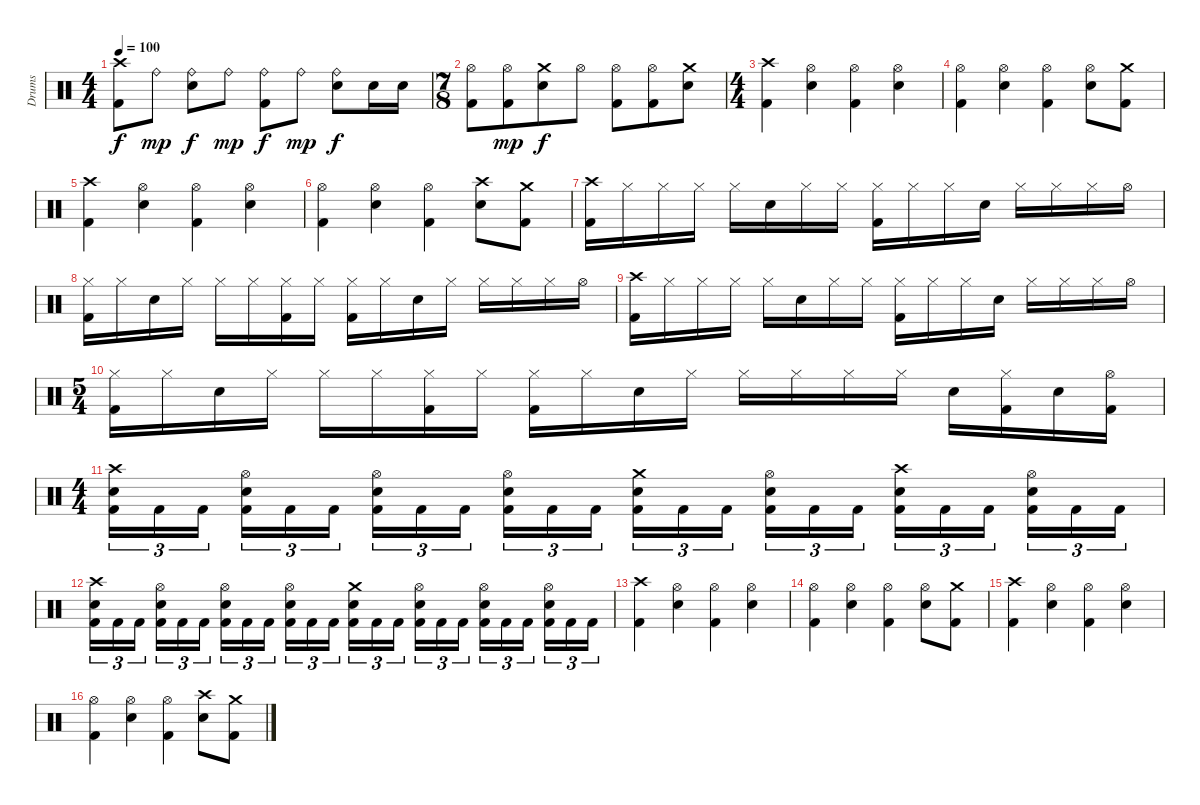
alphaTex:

\track ("Drums" "Drums") {instrument percussion}
\staff {score}
\articulation defaults
\ts (4 4)
\tempo 100
\clef neutral
\ks c
("Crash high (hit)" "Kick (hit) 2").8{dy f} "Ride (bell)".8{dy mp} ("Ride (bell)" "Snare (hit) 2").8{dy f} "Ride (bell)".8{dy mp} ("Ride (bell)" "Kick (hit) 2").8{dy f} "Ride (bell)".8{dy mp} ("Ride (bell)" "Snare (hit) 2").8{dy f} "Snare (hit) 2".16 "Snare (hit) 2".16 |
\ts (7 8)
("Hi-Hat (open)" "Kick (hit) 2").8 ("Hi-Hat (open)" "Kick (hit) 2").8{dy mp} ("Crash medium (hit)" "Snare (hit) 2").8{dy f} "Hi-Hat (open)".8 ("Hi-Hat (open)" "Kick (hit) 2").8 ("Hi-Hat (open)" "Kick (hit) 2").8 ("Crash medium (hit)" "Snare (hit) 2").8 |
\ts (4 4)
("Crash high (hit)" "Kick (hit) 2").4 ("Hi-Hat (open)" "Snare (hit) 2").4 ("Hi-Hat (open)" "Kick (hit) 2").4 ("Hi-Hat (open)" "Snare (hit) 2").4 |
("Hi-Hat (open)" "Kick (hit) 2").4 ("Hi-Hat (open)" "Snare (hit) 2").4 ("Hi-Hat (open)" "Kick (hit) 2").4 ("Hi-Hat (open)" "Snare (hit) 2").8 ("Crash medium (hit)" "Kick (hit) 2").8 |
("Crash high (hit)" "Kick (hit) 2").4 ("Hi-Hat (open)" "Snare (hit) 2").4 ("Hi-Hat (open)" "Kick (hit) 2").4 ("Hi-Hat (open)" "Snare (hit) 2").4 |
("Hi-Hat (open)" "Kick (hit) 2").4 ("Hi-Hat (open)" "Snare (hit) 2").4 ("Hi-Hat (open)" "Kick (hit) 2").4 ("Crash high (hit)" "Snare (hit) 2").8 ("Crash medium (hit)" "Kick (hit) 2").8 |
("Crash high (hit)" "Kick (hit) 2").16 "Hi-Hat (closed)".16 "Hi-Hat (closed)".16 "Hi-Hat (closed)".16 "Hi-Hat (closed)".16 "Snare (hit) 2".16 "Hi-Hat (closed)".16 "Hi-Hat (closed)".16 ("Hi-Hat (closed)" "Kick (hit) 2").16 "Hi-Hat (closed)".16 "Hi-Hat (closed)".16 "Snare (hit) 2".16 "Hi-Hat (closed)".16 "Hi-Hat (closed)".16 "Hi-Hat (closed)".16 "Hi-Hat (open)".16 |
("Hi-Hat (closed)" "Kick (hit) 2").16 "Hi-Hat (closed)".16 "Snare (hit) 2".16 "Hi-Hat (closed)".16 "Hi-Hat (closed)".16 "Hi-Hat (closed)".16 ("Hi-Hat (closed)" "Kick (hit) 2").16 "Hi-Hat (closed)".16 ("Hi-Hat (closed)" "Kick (hit) 2").16 "Hi-Hat (closed)".16 "Snare (hit) 2".16 "Hi-Hat (closed)".16 "Hi-Hat (closed)".16 "Hi-Hat (closed)".16 "Hi-Hat (closed)".16 "Hi-Hat (open)".16 |
("Crash high (hit)" "Kick (hit) 2").16 "Hi-Hat (closed)".16 "Hi-Hat (closed)".16 "Hi-Hat (closed)".16 "Hi-Hat (closed)".16 "Snare (hit) 2".16 "Hi-Hat (closed)".16 "Hi-Hat (closed)".16 ("Hi-Hat (closed)" "Kick (hit) 2").16 "Hi-Hat (closed)".16 "Hi-Hat (closed)".16 "Snare (hit) 2".16 "Hi-Hat (closed)".16 "Hi-Hat (closed)".16 "Hi-Hat (closed)".16 "Hi-Hat (open)".16 |
\ts (5 4)
("Hi-Hat (closed)" "Kick (hit) 2").16 "Hi-Hat (closed)".16 "Snare (hit) 2".16 "Hi-Hat (closed)".16 "Hi-Hat (closed)".16 "Hi-Hat (closed)".16 ("Hi-Hat (closed)" "Kick (hit) 2").16 "Hi-Hat (closed)".16 ("Hi-Hat (closed)" "Kick (hit) 2").16 "Hi-Hat (closed)".16 "Snare (hit) 2".16 "Hi-Hat (closed)".16 "Hi-Hat (closed)".16 "Hi-Hat (closed)".16 "Hi-Hat (closed)".16 "Hi-Hat (closed)".16 "Snare (hit) 2".16 ("Hi-Hat (closed)" "Kick (hit) 2").16 "Snare (hit) 2".16 ("Hi-Hat (open)" "Kick (hit) 2").16 |
\ts (4 4)
("Crash high (hit)" "Snare (hit) 2" "Kick (hit) 2").16{tu (3 2)} "Kick (hit) 2".16{tu (3 2)} "Kick (hit) 2".16{tu (3 2)} ("Hi-Hat (open)" "Snare (hit) 2" "Kick (hit) 2").16{tu (3 2)} "Kick (hit) 2".16{tu (3 2)} "Kick (hit) 2".16{tu (3 2)} ("Hi-Hat (open)" "Snare (hit) 2" "Kick (hit) 2").16{tu (3 2)} "Kick (hit) 2".16{tu (3 2)} "Kick (hit) 2".16{tu (3 2)} ("Hi-Hat (open)" "Snare (hit) 2" "Kick (hit) 2").16{tu (3 2)} "Kick (hit) 2".16{tu (3 2)} "Kick (hit) 2".16{tu (3 2)} ("Crash medium (hit)" "Snare (hit) 2" "Kick (hit) 2").16{tu (3 2)} "Kick (hit) 2".16{tu (3 2)} "Kick (hit) 2".16{tu (3 2)} ("Hi-Hat (open)" "Snare (hit) 2" "Kick (hit) 2").16{tu (3 2)} "Kick (hit) 2".16{tu (3 2)} "Kick (hit) 2".16{tu (3 2)} ("Crash high (hit)" "Snare (hit) 2" "Kick (hit) 2").16{tu (3 2)} "Kick (hit) 2".16{tu (3 2)} "Kick (hit) 2".16{tu (3 2)} ("Hi-Hat (open)" "Snare (hit) 2" "Kick (hit) 2").16{tu (3 2)} "Kick (hit) 2".16{tu (3 2)} "Kick (hit) 2".16{tu (3 2)} |
("Crash high (hit)" "Snare (hit) 2" "Kick (hit) 2").16{tu (3 2)} "Kick (hit) 2".16{tu (3 2)} "Kick (hit) 2".16{tu (3 2)} ("Hi-Hat (open)" "Snare (hit) 2" "Kick (hit) 2").16{tu (3 2)} "Kick (hit) 2".16{tu (3 2)} "Kick (hit) 2".16{tu (3 2)} ("Hi-Hat (open)" "Snare (hit) 2" "Kick (hit) 2").16{tu (3 2)} "Kick (hit) 2".16{tu (3 2)} "Kick (hit) 2".16{tu (3 2)} ("Hi-Hat (open)" "Snare (hit) 2" "Kick (hit) 2").16{tu (3 2)} "Kick (hit) 2".16{tu (3 2)} "Kick (hit) 2".16{tu (3 2)} ("Crash medium (hit)" "Snare (hit) 2" "Kick (hit) 2").16{tu (3 2)} "Kick (hit) 2".16{tu (3 2)} "Kick (hit) 2".16{tu (3 2)} ("Hi-Hat (open)" "Snare (hit) 2" "Kick (hit) 2").16{tu (3 2)} "Kick (hit) 2".16{tu (3 2)} "Kick (hit) 2".16{tu (3 2)} ("Hi-Hat (open)" "Snare (hit) 2" "Kick (hit) 2").16{tu (3 2)} "Kick (hit) 2".16{tu (3 2)} "Kick (hit) 2".16{tu (3 2)} ("Hi-Hat (open)" "Snare (hit) 2" "Kick (hit) 2").16{tu (3 2)} "Kick (hit) 2".16{tu (3 2)} "Kick (hit) 2".16{tu (3 2)} |
("Crash high (hit)" "Kick (hit) 2").4 ("Hi-Hat (open)" "Snare (hit) 2").4 ("Hi-Hat (open)" "Kick (hit) 2").4 ("Hi-Hat (open)" "Snare (hit) 2").4 |
("Hi-Hat (open)" "Kick (hit) 2").4 ("Hi-Hat (open)" "Snare (hit) 2").4 ("Hi-Hat (open)" "Kick (hit) 2").4 ("Hi-Hat (open)" "Snare (hit) 2").8 ("Crash medium (hit)" "Kick (hit) 2").8 |
("Crash high (hit)" "Kick (hit) 2").4 ("Hi-Hat (open)" "Snare (hit) 2").4 ("Hi-Hat (open)" "Kick (hit) 2").4 ("Hi-Hat (open)" "Snare (hit) 2").4 |
("Hi-Hat (open)" "Kick (hit) 2").4 ("Hi-Hat (open)" "Snare (hit) 2").4 ("Hi-Hat (open)" "Kick (hit) 2").4 ("Crash high (hit)" "Snare (hit) 2").8 ("Crash medium (hit)" "Kick (hit) 2").8
